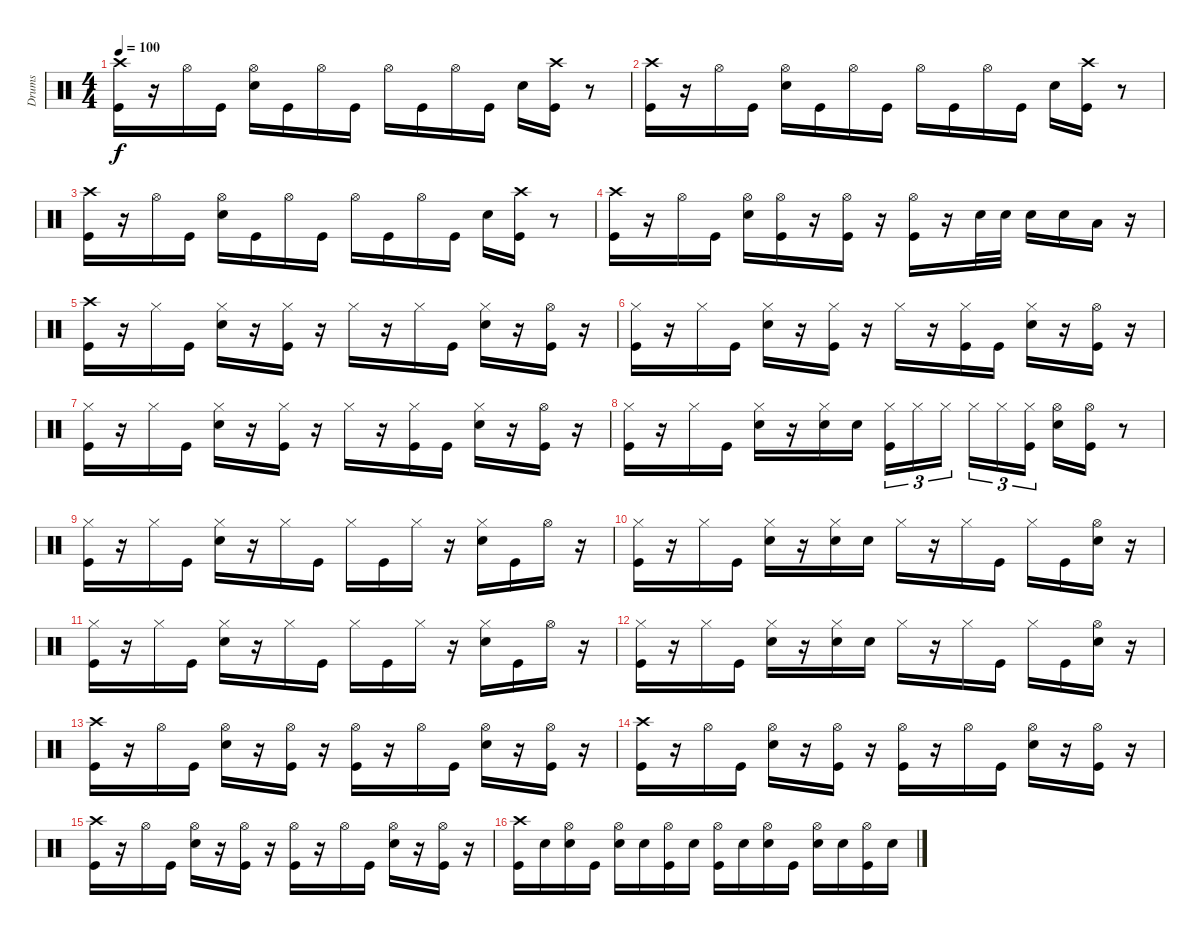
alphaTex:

\track ("Drums" "Drums") {instrument percussion}
\staff {score}
\articulation defaults
\ts (4 4)
\tempo 100
\clef neutral
\ks c
("Kick (hit)" "Crash high (hit)").16{dy f} r.16 "Hi-Hat (open)".16 "Kick (hit)".16 ("Electric Snare (hit)" "Hi-Hat (open)").16 "Kick (hit)".16 "Hi-Hat (open)".16 "Kick (hit)".16 "Hi-Hat (open)".16 "Kick (hit)".16 "Hi-Hat (open)".16 "Kick (hit)".16 "Electric Snare (hit)".16 ("Kick (hit)" "Crash high (hit)").16 r.8 |
("Kick (hit)" "Crash high (hit)").16 r.16 "Hi-Hat (open)".16 "Kick (hit)".16 ("Electric Snare (hit)" "Hi-Hat (open)").16 "Kick (hit)".16 "Hi-Hat (open)".16 "Kick (hit)".16 "Hi-Hat (open)".16 "Kick (hit)".16 "Hi-Hat (open)".16 "Kick (hit)".16 "Electric Snare (hit)".16 ("Kick (hit)" "Crash high (hit)").16 r.8 |
("Kick (hit)" "Crash high (hit)").16 r.16 "Hi-Hat (open)".16 "Kick (hit)".16 ("Electric Snare (hit)" "Hi-Hat (open)").16 "Kick (hit)".16 "Hi-Hat (open)".16 "Kick (hit)".16 "Hi-Hat (open)".16 "Kick (hit)".16 "Hi-Hat (open)".16 "Kick (hit)".16 "Electric Snare (hit)".16 ("Kick (hit)" "Crash high (hit)").16 r.8 |
("Kick (hit)" "Crash high (hit)").16 r.16 "Hi-Hat (open)".16 "Kick (hit)".16 ("Electric Snare (hit)" "Hi-Hat (open)").16 ("Kick (hit)" "Hi-Hat (open)").16 r.16 ("Kick (hit)" "Hi-Hat (open)").16 r.16 ("Kick (hit)" "Hi-Hat (open)").16 r.16 "Electric Snare (hit)".32 "Electric Snare (hit)".32 "Electric Snare (hit)".16 "Electric Snare (hit)".16 "Low Tom (hit)".16 r.16 |
("Kick (hit)" "Crash high (hit)").16 r.16 "Hi-Hat (closed)".16 "Kick (hit)".16 ("Electric Snare (hit)" "Hi-Hat (closed)").16 r.16 ("Kick (hit)" "Hi-Hat (closed)").16 r.16 "Hi-Hat (closed)".16 r.16 "Hi-Hat (closed)".16 "Kick (hit)".16 ("Electric Snare (hit)" "Hi-Hat (closed)").16 r.16 ("Kick (hit)" "Hi-Hat (open)").16 r.16 |
("Kick (hit)" "Hi-Hat (closed)").16 r.16 "Hi-Hat (closed)".16 "Kick (hit)".16 ("Electric Snare (hit)" "Hi-Hat (closed)").16 r.16 ("Kick (hit)" "Hi-Hat (closed)").16 r.16 "Hi-Hat (closed)".16 r.16 ("Kick (hit)" "Hi-Hat (closed)").16 "Kick (hit)".16 ("Electric Snare (hit)" "Hi-Hat (closed)").16 r.16 ("Kick (hit)" "Hi-Hat (open)").16 r.16 |
("Kick (hit)" "Hi-Hat (closed)").16 r.16 "Hi-Hat (closed)".16 "Kick (hit)".16 ("Electric Snare (hit)" "Hi-Hat (closed)").16 r.16 ("Kick (hit)" "Hi-Hat (closed)").16 r.16 "Hi-Hat (closed)".16 r.16 ("Kick (hit)" "Hi-Hat (closed)").16 "Kick (hit)".16 ("Electric Snare (hit)" "Hi-Hat (closed)").16 r.16 ("Kick (hit)" "Hi-Hat (open)").16 r.16 |
("Kick (hit)" "Hi-Hat (closed)").16 r.16 "Hi-Hat (closed)".16 "Kick (hit)".16 ("Electric Snare (hit)" "Hi-Hat (closed)").16 r.16 ("Electric Snare (hit)" "Hi-Hat (closed)").16 "Electric Snare (hit)".16 ("Kick (hit)" "Hi-Hat (closed)").16{tu (3 2)} "Hi-Hat (closed)".16{tu (3 2)} "Hi-Hat (closed)".16{tu (3 2)} "Hi-Hat (closed)".16{tu (3 2)} "Hi-Hat (closed)".16{tu (3 2)} ("Kick (hit)" "Hi-Hat (closed)").16{tu (3 2)} ("Electric Snare (hit)" "Hi-Hat (open)").16 ("Kick (hit)" "Hi-Hat (open)").16 r.8 |
("Kick (hit)" "Hi-Hat (closed)").16 r.16 "Hi-Hat (closed)".16 "Kick (hit)".16 ("Electric Snare (hit)" "Hi-Hat (closed)").16 r.16 "Hi-Hat (closed)".16 "Kick (hit)".16 "Hi-Hat (closed)".16 "Kick (hit)".16 "Hi-Hat (closed)".16 r.16 ("Electric Snare (hit)" "Hi-Hat (closed)").16 "Kick (hit)".16 "Hi-Hat (open)".16 r.16 |
("Kick (hit)" "Hi-Hat (closed)").16 r.16 "Hi-Hat (closed)".16 "Kick (hit)".16 ("Electric Snare (hit)" "Hi-Hat (closed)").16 r.16 ("Electric Snare (hit)" "Hi-Hat (closed)").16 "Electric Snare (hit)".16 "Hi-Hat (closed)".16 r.16 "Hi-Hat (closed)".16 "Kick (hit)".16 "Hi-Hat (closed)".16 "Kick (hit)".16 ("Electric Snare (hit)" "Hi-Hat (open)").16 r.16 |
("Kick (hit)" "Hi-Hat (closed)").16 r.16 "Hi-Hat (closed)".16 "Kick (hit)".16 ("Electric Snare (hit)" "Hi-Hat (closed)").16 r.16 "Hi-Hat (closed)".16 "Kick (hit)".16 "Hi-Hat (closed)".16 "Kick (hit)".16 "Hi-Hat (closed)".16 r.16 ("Electric Snare (hit)" "Hi-Hat (closed)").16 "Kick (hit)".16 "Hi-Hat (open)".16 r.16 |
("Kick (hit)" "Hi-Hat (closed)").16 r.16 "Hi-Hat (closed)".16 "Kick (hit)".16 ("Electric Snare (hit)" "Hi-Hat (closed)").16 r.16 ("Electric Snare (hit)" "Hi-Hat (closed)").16 "Electric Snare (hit)".16 "Hi-Hat (closed)".16 r.16 "Hi-Hat (closed)".16 "Kick (hit)".16 "Hi-Hat (closed)".16 "Kick (hit)".16 ("Electric Snare (hit)" "Hi-Hat (open)").16 r.16 |
("Kick (hit)" "Crash high (hit)").16 r.16 "Hi-Hat (open)".16 "Kick (hit)".16 ("Electric Snare (hit)" "Hi-Hat (open)").16 r.16 ("Kick (hit)" "Hi-Hat (open)").16 r.16 ("Kick (hit)" "Hi-Hat (open)").16 r.16 "Hi-Hat (open)".16 "Kick (hit)".16 ("Electric Snare (hit)" "Hi-Hat (open)").16 r.16 ("Kick (hit)" "Hi-Hat (open)").16 r.16 |
("Kick (hit)" "Crash high (hit)").16 r.16 "Hi-Hat (open)".16 "Kick (hit)".16 ("Electric Snare (hit)" "Hi-Hat (open)").16 r.16 ("Kick (hit)" "Hi-Hat (open)").16 r.16 ("Kick (hit)" "Hi-Hat (open)").16 r.16 "Hi-Hat (open)".16 "Kick (hit)".16 ("Electric Snare (hit)" "Hi-Hat (open)").16 r.16 ("Kick (hit)" "Hi-Hat (open)").16 r.16 |
("Kick (hit)" "Crash high (hit)").16 r.16 "Hi-Hat (open)".16 "Kick (hit)".16 ("Electric Snare (hit)" "Hi-Hat (open)").16 r.16 ("Kick (hit)" "Hi-Hat (open)").16 r.16 ("Kick (hit)" "Hi-Hat (open)").16 r.16 "Hi-Hat (open)".16 "Kick (hit)".16 ("Electric Snare (hit)" "Hi-Hat (open)").16 r.16 ("Kick (hit)" "Hi-Hat (open)").16 r.16 |
("Kick (hit)" "Crash high (hit)").16 "Electric Snare (hit)".16 ("Electric Snare (hit)" "Hi-Hat (open)").16 "Kick (hit)".16 ("Electric Snare (hit)" "Hi-Hat (open)").16 "Electric Snare (hit)".16 ("Kick (hit)" "Hi-Hat (open)").16 "Electric Snare (hit)".16 ("Kick (hit)" "Hi-Hat (open)").16 "Electric Snare (hit)".16 ("Electric Snare (hit)" "Hi-Hat (open)").16 "Kick (hit)".16 ("Electric Snare (hit)" "Hi-Hat (open)").16 "Electric Snare (hit)".16 ("Kick (hit)" "Hi-Hat (open)").16 "Electric Snare (hit)".16
